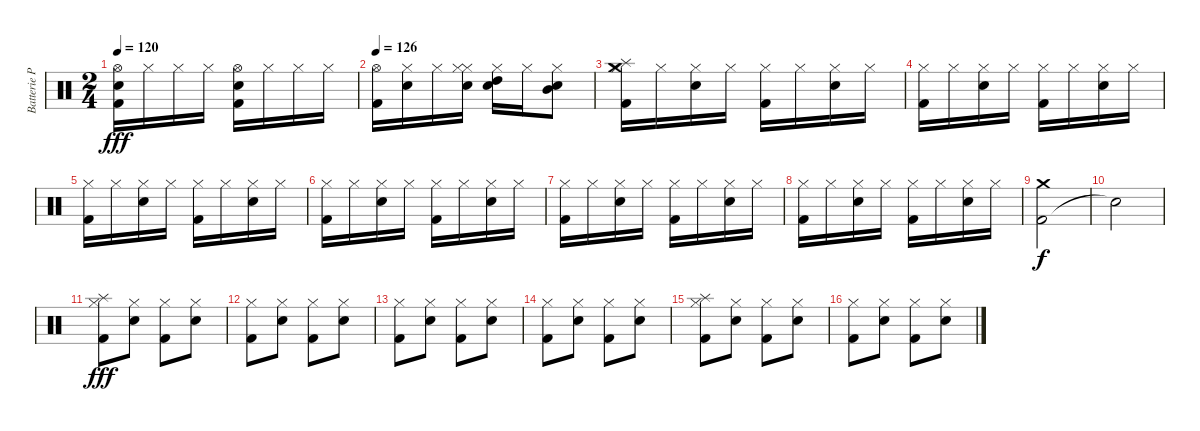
\track ("Batterie Pako" "Batterie P") {instrument percussion}
\staff {score}
\articulation defaults
\ts (2 4)
\tempo 120
\clef neutral
\ks c
("Kick (hit) 2" "Electric Snare (hit)" "Hi-Hat (open)").16{dy fff} "Hi-Hat (closed)".16 "Hi-Hat (closed)".16 "Hi-Hat (closed)".16 ("Kick (hit) 2" "Electric Snare (hit)" "Hi-Hat (open)").16 "Hi-Hat (closed)".16 "Hi-Hat (closed)".16 "Hi-Hat (closed)".16 |
\tempo 126
("Kick (hit) 2" "Hi-Hat (open)").16 ("Electric Snare (hit)" "Hi-Hat (closed)").16 "Hi-Hat (closed)".16 ("Hi-Hat (closed)" "Electric Snare (hit)" "Hi-Hat (closed)").16 ("Hi-Hat (closed)" "High Tom (hit)" "Electric Snare (hit)").16 "Hi-Hat (closed)".16 ("Hi-Hat (closed)" "Electric Snare (hit)" "Mid Tom (hit)").8 |
("Kick (hit) 2" "Crash medium (hit)" "Splash (hit)" "Hi-Hat (closed)").16 "Hi-Hat (closed)".16 ("Hi-Hat (closed)" "Electric Snare (hit)").16 "Hi-Hat (closed)".16 ("Kick (hit) 2" "Hi-Hat (closed)").16 "Hi-Hat (closed)".16 ("Hi-Hat (closed)" "Electric Snare (hit)").16 "Hi-Hat (closed)".16 |
("Kick (hit) 2" "Hi-Hat (closed)").16 "Hi-Hat (closed)".16 ("Hi-Hat (closed)" "Electric Snare (hit)").16 "Hi-Hat (closed)".16 ("Kick (hit) 2" "Hi-Hat (closed)").16 "Hi-Hat (closed)".16 ("Hi-Hat (closed)" "Electric Snare (hit)").16 "Hi-Hat (closed)".16 |
("Kick (hit) 2" "Hi-Hat (closed)").16 "Hi-Hat (closed)".16 ("Hi-Hat (closed)" "Electric Snare (hit)").16 "Hi-Hat (closed)".16 ("Kick (hit) 2" "Hi-Hat (closed)").16 "Hi-Hat (closed)".16 ("Hi-Hat (closed)" "Electric Snare (hit)").16 "Hi-Hat (closed)".16 |
("Kick (hit) 2" "Hi-Hat (closed)").16 "Hi-Hat (closed)".16 ("Hi-Hat (closed)" "Electric Snare (hit)").16 "Hi-Hat (closed)".16 ("Kick (hit) 2" "Hi-Hat (closed)").16 "Hi-Hat (closed)".16 ("Hi-Hat (closed)" "Electric Snare (hit)").16 "Hi-Hat (closed)".16 |
("Kick (hit) 2" "Hi-Hat (closed)").16 "Hi-Hat (closed)".16 ("Hi-Hat (closed)" "Electric Snare (hit)").16 "Hi-Hat (closed)".16 ("Kick (hit) 2" "Hi-Hat (closed)").16 "Hi-Hat (closed)".16 ("Hi-Hat (closed)" "Electric Snare (hit)").16 "Hi-Hat (closed)".16 |
("Kick (hit) 2" "Hi-Hat (closed)").16 "Hi-Hat (closed)".16 ("Hi-Hat (closed)" "Electric Snare (hit)").16 "Hi-Hat (closed)".16 ("Kick (hit) 2" "Hi-Hat (closed)").16 "Hi-Hat (closed)".16 ("Hi-Hat (closed)" "Electric Snare (hit)").16 "Hi-Hat (closed)".16 |
("Kick (hit) 2" "Crash medium (hit)").2{dy f} |
"Snare (hit)"{t}.2 |
("Splash (hit)" "Hi-Hat (closed)" "Kick (hit) 2").8{dy fff} ("Hi-Hat (closed)" "Electric Snare (hit)").8 ("Hi-Hat (closed)" "Kick (hit) 2").8 ("Hi-Hat (closed)" "Electric Snare (hit)").8 |
("Hi-Hat (closed)" "Kick (hit) 2").8 ("Hi-Hat (closed)" "Electric Snare (hit)").8 ("Hi-Hat (closed)" "Kick (hit) 2").8 ("Hi-Hat (closed)" "Electric Snare (hit)").8 |
("Hi-Hat (closed)" "Kick (hit) 2").8 ("Hi-Hat (closed)" "Electric Snare (hit)").8 ("Hi-Hat (closed)" "Kick (hit) 2").8 ("Hi-Hat (closed)" "Electric Snare (hit)").8 |
("Hi-Hat (closed)" "Kick (hit) 2").8 ("Hi-Hat (closed)" "Electric Snare (hit)").8 ("Hi-Hat (closed)" "Kick (hit) 2").8 ("Hi-Hat (closed)" "Electric Snare (hit)").8 |
("Splash (hit)" "Hi-Hat (closed)" "Kick (hit) 2").8 ("Hi-Hat (closed)" "Electric Snare (hit)").8 ("Hi-Hat (closed)" "Kick (hit) 2").8 ("Hi-Hat (closed)" "Electric Snare (hit)").8 |
("Hi-Hat (closed)" "Kick (hit) 2").8 ("Hi-Hat (closed)" "Electric Snare (hit)").8 ("Hi-Hat (closed)" "Kick (hit) 2").8 ("Hi-Hat (closed)" "Electric Snare (hit)").8
